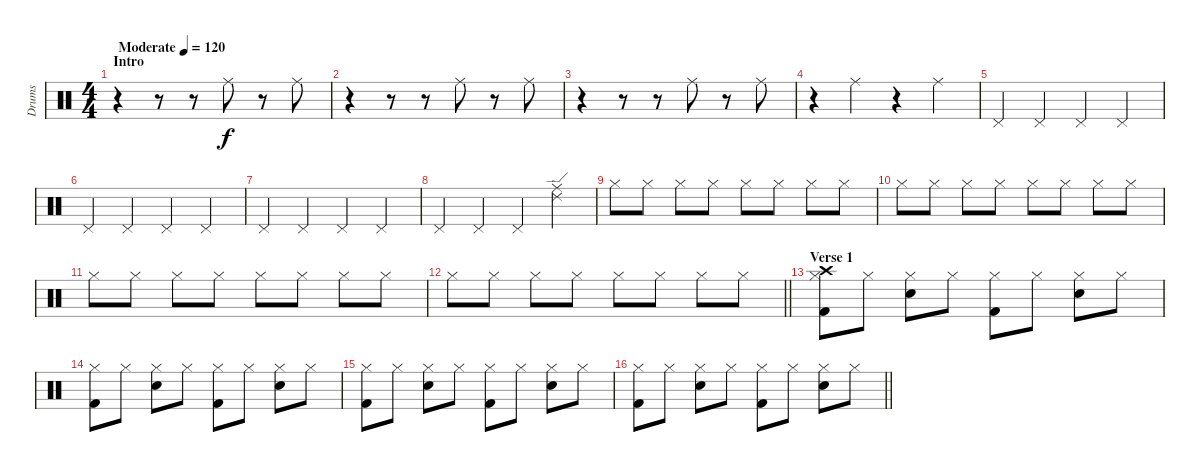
\track ("Drums" "Drums") {instrument percussion}
\staff {score}
\articulation defaults
\ts (4 4)
\section ("" "Intro")
\tempo (120 "Moderate")
\clef neutral
\ks c
r.4{dy f} r.8 r.8 "Ride (middle)".8 r.8 "Ride (middle)".8 |
r.4 r.8 r.8 "Ride (middle)".8 r.8 "Ride (middle)".8 |
r.4 r.8 r.8 "Ride (middle)".8 r.8 "Ride (middle)".8 |
r.4 "Ride (middle)".4 r.4 "Ride (middle)".4 |
"Pedal Hi-Hat (hit)".4 "Pedal Hi-Hat (hit)".4 "Pedal Hi-Hat (hit)".4 "Pedal Hi-Hat (hit)".4 |
"Pedal Hi-Hat (hit)".4 "Pedal Hi-Hat (hit)".4 "Pedal Hi-Hat (hit)".4 "Pedal Hi-Hat (hit)".4 |
"Pedal Hi-Hat (hit)".4 "Pedal Hi-Hat (hit)".4 "Pedal Hi-Hat (hit)".4 "Pedal Hi-Hat (hit)".4 |
"Pedal Hi-Hat (hit)".4 "Pedal Hi-Hat (hit)".4 "Pedal Hi-Hat (hit)".4 ("Ride (edge) 2" "Ride (middle)").4 |
"Hi-Hat (closed)".8 "Hi-Hat (closed)".8 "Hi-Hat (closed)".8 "Hi-Hat (closed)".8 "Hi-Hat (closed)".8 "Hi-Hat (closed)".8 "Hi-Hat (closed)".8 "Hi-Hat (closed)".8 |
"Hi-Hat (closed)".8 "Hi-Hat (closed)".8 "Hi-Hat (closed)".8 "Hi-Hat (closed)".8 "Hi-Hat (closed)".8 "Hi-Hat (closed)".8 "Hi-Hat (closed)".8 "Hi-Hat (closed)".8 |
"Hi-Hat (closed)".8 "Hi-Hat (closed)".8 "Hi-Hat (closed)".8 "Hi-Hat (closed)".8 "Hi-Hat (closed)".8 "Hi-Hat (closed)".8 "Hi-Hat (closed)".8 "Hi-Hat (closed)".8 |
\barLineRight lightlight "Hi-Hat (closed)".8 "Hi-Hat (closed)".8 "Hi-Hat (closed)".8 "Hi-Hat (closed)".8 "Hi-Hat (closed)".8 "Hi-Hat (closed)".8 "Hi-Hat (closed)".8 "Hi-Hat (closed)".8
|
\section ("" "Verse 1")
("Kick (hit) 2" "Hi-Hat (closed)" "Crash high (hit)").8 "Hi-Hat (closed)".8 ("Snare (hit) 2" "Hi-Hat (closed)").8 "Hi-Hat (closed)".8 ("Kick (hit) 2" "Hi-Hat (closed)").8 "Hi-Hat (closed)".8 ("Snare (hit) 2" "Hi-Hat (closed)").8 "Hi-Hat (closed)".8 |
("Kick (hit) 2" "Hi-Hat (closed)").8 "Hi-Hat (closed)".8 ("Snare (hit) 2" "Hi-Hat (closed)").8 "Hi-Hat (closed)".8 ("Kick (hit) 2" "Hi-Hat (closed)").8 "Hi-Hat (closed)".8 ("Snare (hit) 2" "Hi-Hat (closed)").8 "Hi-Hat (closed)".8 |
("Kick (hit) 2" "Hi-Hat (closed)").8 "Hi-Hat (closed)".8 ("Snare (hit) 2" "Hi-Hat (closed)").8 "Hi-Hat (closed)".8 ("Kick (hit) 2" "Hi-Hat (closed)").8 "Hi-Hat (closed)".8 ("Snare (hit) 2" "Hi-Hat (closed)").8 "Hi-Hat (closed)".8 |
\barLineRight lightlight
("Kick (hit) 2" "Hi-Hat (closed)").8 "Hi-Hat (closed)".8 ("Snare (hit) 2" "Hi-Hat (closed)").8 "Hi-Hat (closed)".8 ("Kick (hit) 2" "Hi-Hat (closed)").8 "Hi-Hat (closed)".8 ("Snare (hit) 2" "Hi-Hat (closed)").8 "Hi-Hat (closed)".8
